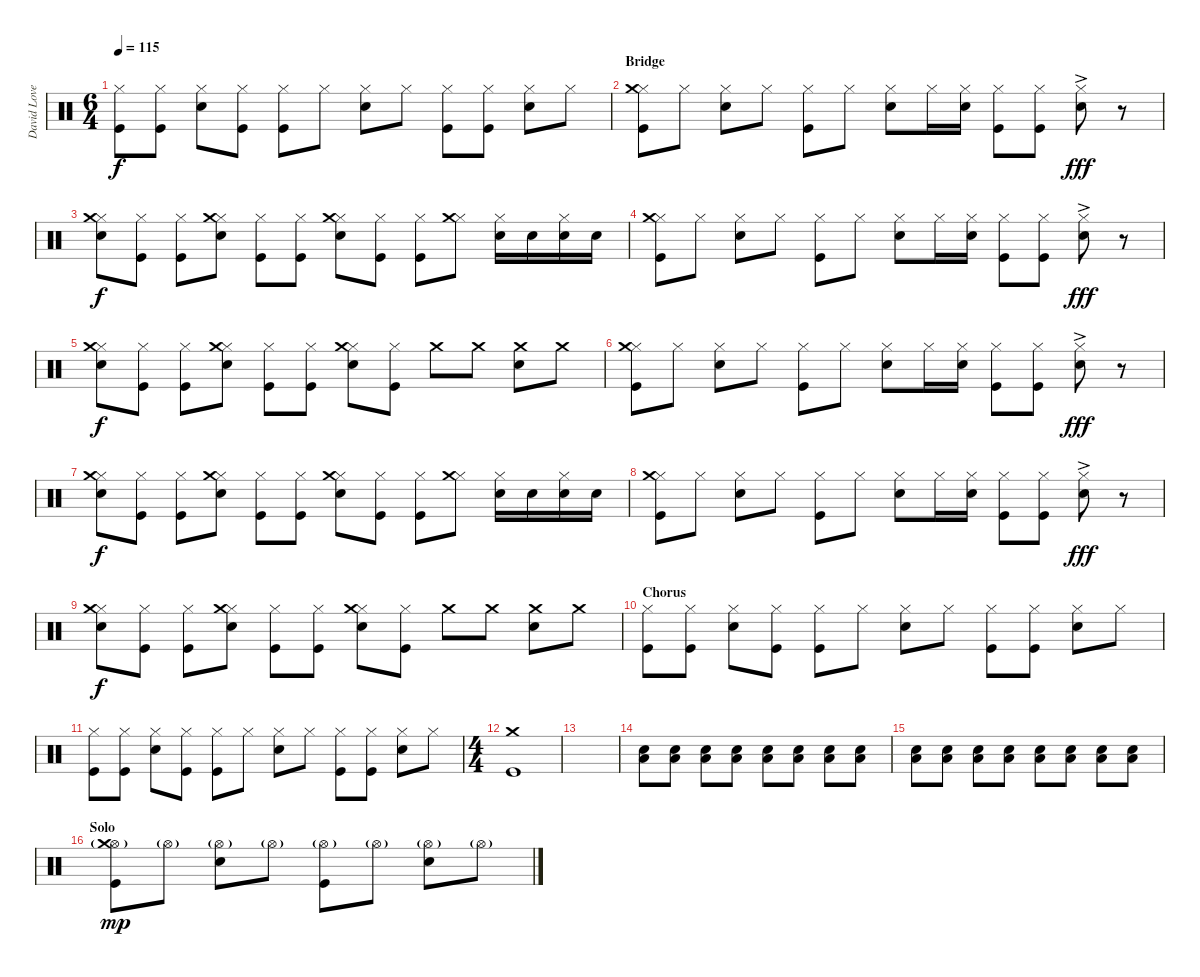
\track ("David Lovering" "David Love") {instrument percussion}
\staff {score}
\articulation defaults
\ts (6 4)
\tempo 115
\clef neutral
\ks c
("Hi-Hat (closed)" "Kick (hit)").8{dy f} ("Hi-Hat (closed)" "Kick (hit)").8 ("Hi-Hat (closed)" "Snare (hit) 2").8 ("Hi-Hat (closed)" "Kick (hit)").8 ("Hi-Hat (closed)" "Kick (hit)").8 "Hi-Hat (closed)".8 ("Hi-Hat (closed)" "Snare (hit) 2").8 "Hi-Hat (closed)".8 ("Hi-Hat (closed)" "Kick (hit)").8 ("Hi-Hat (closed)" "Kick (hit)").8 ("Hi-Hat (closed)" "Snare (hit) 2").8 "Hi-Hat (closed)".8 |
\section ("" "Bridge")
("Hi-Hat (closed)" "Crash medium (hit)" "Kick (hit)").8 "Hi-Hat (closed)".8 ("Hi-Hat (closed)" "Snare (hit) 2").8 "Hi-Hat (closed)".8 ("Hi-Hat (closed)" "Kick (hit)").8 "Hi-Hat (closed)".8 ("Hi-Hat (closed)" "Snare (hit) 2").8 "Hi-Hat (closed)".16 ("Hi-Hat (closed)" "Snare (hit) 2").16 ("Hi-Hat (closed)" "Kick (hit)").8 ("Hi-Hat (closed)" "Kick (hit)").8 ("Hi-Hat (closed)"{ac} "Snare (hit) 2").8{dy fff} r.8 |
("Hi-Hat (closed)" "Crash medium (hit)" "Snare (hit) 2").8{dy f} ("Hi-Hat (closed)" "Kick (hit)").8 ("Hi-Hat (closed)" "Kick (hit)").8 ("Hi-Hat (closed)" "Crash medium (hit)" "Snare (hit) 2").8 ("Hi-Hat (closed)" "Kick (hit)").8 ("Hi-Hat (closed)" "Kick (hit)").8 ("Hi-Hat (closed)" "Crash medium (hit)" "Snare (hit) 2").8 ("Hi-Hat (closed)" "Kick (hit)").8 ("Hi-Hat (closed)" "Kick (hit)").8 ("Hi-Hat (closed)" "Crash medium (hit)").8 ("Hi-Hat (closed)" "Snare (hit) 2").16 "Snare (hit) 2".16 ("Hi-Hat (closed)" "Snare (hit) 2").16 "Snare (hit) 2".16 |
("Hi-Hat (closed)" "Crash medium (hit)" "Kick (hit)").8 "Hi-Hat (closed)".8 ("Hi-Hat (closed)" "Snare (hit) 2").8 "Hi-Hat (closed)".8 ("Hi-Hat (closed)" "Kick (hit)").8 "Hi-Hat (closed)".8 ("Hi-Hat (closed)" "Snare (hit) 2").8 "Hi-Hat (closed)".16 ("Hi-Hat (closed)" "Snare (hit) 2").16 ("Hi-Hat (closed)" "Kick (hit)").8 ("Hi-Hat (closed)" "Kick (hit)").8 ("Hi-Hat (closed)"{ac} "Snare (hit) 2").8{dy fff} r.8 |
("Hi-Hat (closed)" "Crash medium (hit)" "Snare (hit) 2").8{dy f} ("Hi-Hat (closed)" "Kick (hit)").8 ("Hi-Hat (closed)" "Kick (hit)").8 ("Hi-Hat (closed)" "Crash medium (hit)" "Snare (hit) 2").8 ("Hi-Hat (closed)" "Kick (hit)").8 ("Hi-Hat (closed)" "Kick (hit)").8 ("Hi-Hat (closed)" "Crash medium (hit)" "Snare (hit) 2").8 ("Hi-Hat (closed)" "Kick (hit)").8 "Crash medium (hit)".8 "Crash medium (hit)".8 ("Crash medium (hit)" "Snare (hit) 2").8 "Crash medium (hit)".8 |
("Hi-Hat (closed)" "Crash medium (hit)" "Kick (hit)").8 "Hi-Hat (closed)".8 ("Hi-Hat (closed)" "Snare (hit) 2").8 "Hi-Hat (closed)".8 ("Hi-Hat (closed)" "Kick (hit)").8 "Hi-Hat (closed)".8 ("Hi-Hat (closed)" "Snare (hit) 2").8 "Hi-Hat (closed)".16 ("Hi-Hat (closed)" "Snare (hit) 2").16 ("Hi-Hat (closed)" "Kick (hit)").8 ("Hi-Hat (closed)" "Kick (hit)").8 ("Hi-Hat (closed)"{ac} "Snare (hit) 2").8{dy fff} r.8 |
("Hi-Hat (closed)" "Crash medium (hit)" "Snare (hit) 2").8{dy f} ("Hi-Hat (closed)" "Kick (hit)").8 ("Hi-Hat (closed)" "Kick (hit)").8 ("Hi-Hat (closed)" "Crash medium (hit)" "Snare (hit) 2").8 ("Hi-Hat (closed)" "Kick (hit)").8 ("Hi-Hat (closed)" "Kick (hit)").8 ("Hi-Hat (closed)" "Crash medium (hit)" "Snare (hit) 2").8 ("Hi-Hat (closed)" "Kick (hit)").8 ("Hi-Hat (closed)" "Kick (hit)").8 ("Hi-Hat (closed)" "Crash medium (hit)").8 ("Hi-Hat (closed)" "Snare (hit) 2").16 "Snare (hit) 2".16 ("Hi-Hat (closed)" "Snare (hit) 2").16 "Snare (hit) 2".16 |
("Hi-Hat (closed)" "Crash medium (hit)" "Kick (hit)").8 "Hi-Hat (closed)".8 ("Hi-Hat (closed)" "Snare (hit) 2").8 "Hi-Hat (closed)".8 ("Hi-Hat (closed)" "Kick (hit)").8 "Hi-Hat (closed)".8 ("Hi-Hat (closed)" "Snare (hit) 2").8 "Hi-Hat (closed)".16 ("Hi-Hat (closed)" "Snare (hit) 2").16 ("Hi-Hat (closed)" "Kick (hit)").8 ("Hi-Hat (closed)" "Kick (hit)").8 ("Hi-Hat (closed)"{ac} "Snare (hit) 2").8{dy fff} r.8 |
("Hi-Hat (closed)" "Crash medium (hit)" "Snare (hit) 2").8{dy f} ("Hi-Hat (closed)" "Kick (hit)").8 ("Hi-Hat (closed)" "Kick (hit)").8 ("Hi-Hat (closed)" "Crash medium (hit)" "Snare (hit) 2").8 ("Hi-Hat (closed)" "Kick (hit)").8 ("Hi-Hat (closed)" "Kick (hit)").8 ("Hi-Hat (closed)" "Crash medium (hit)" "Snare (hit) 2").8 ("Hi-Hat (closed)" "Kick (hit)").8 "Crash medium (hit)".8 "Crash medium (hit)".8 ("Crash medium (hit)" "Snare (hit) 2").8 "Crash medium (hit)".8 |
\section ("" "Chorus")
("Hi-Hat (closed)" "Kick (hit)").8 ("Hi-Hat (closed)" "Kick (hit)").8 ("Hi-Hat (closed)" "Snare (hit) 2").8 ("Hi-Hat (closed)" "Kick (hit)").8 ("Hi-Hat (closed)" "Kick (hit)").8 "Hi-Hat (closed)".8 ("Hi-Hat (closed)" "Snare (hit) 2").8 "Hi-Hat (closed)".8 ("Hi-Hat (closed)" "Kick (hit)").8 ("Hi-Hat (closed)" "Kick (hit)").8 ("Hi-Hat (closed)" "Snare (hit) 2").8 "Hi-Hat (closed)".8 |
("Hi-Hat (closed)" "Kick (hit)").8 ("Hi-Hat (closed)" "Kick (hit)").8 ("Hi-Hat (closed)" "Snare (hit) 2").8 ("Hi-Hat (closed)" "Kick (hit)").8 ("Hi-Hat (closed)" "Kick (hit)").8 "Hi-Hat (closed)".8 ("Hi-Hat (closed)" "Snare (hit) 2").8 "Hi-Hat (closed)".8 ("Hi-Hat (closed)" "Kick (hit)").8 ("Hi-Hat (closed)" "Kick (hit)").8 ("Hi-Hat (closed)" "Snare (hit) 2").8 "Hi-Hat (closed)".8 |
\ts (4 4)
\section ("" "")
("Crash medium (hit)" "Kick (hit)").1 |
|
("Snare (hit) 2" "Low Floor Tom (hit)").8 ("Snare (hit) 2" "Low Floor Tom (hit)").8 ("Snare (hit) 2" "Low Floor Tom (hit)").8 ("Snare (hit) 2" "Low Floor Tom (hit)").8 ("Snare (hit) 2" "Low Floor Tom (hit)").8 ("Snare (hit) 2" "Low Floor Tom (hit)").8 ("Snare (hit) 2" "Low Floor Tom (hit)").8 ("Snare (hit) 2" "Low Floor Tom (hit)").8 |
("Snare (hit) 2" "Low Floor Tom (hit)").8 ("Snare (hit) 2" "Low Floor Tom (hit)").8 ("Snare (hit) 2" "Low Floor Tom (hit)").8 ("Snare (hit) 2" "Low Floor Tom (hit)").8 ("Snare (hit) 2" "Low Floor Tom (hit)").8 ("Snare (hit) 2" "Low Floor Tom (hit)").8 ("Snare (hit) 2" "Low Floor Tom (hit)").8 ("Snare (hit) 2" "Low Floor Tom (hit)").8 |
\section ("" "Solo")
("Hi-Hat (open)"{g} "Crash medium (hit)" "Kick (hit)").8{dy mp} "Hi-Hat (open)"{g}.8 ("Hi-Hat (open)"{g} "Snare (hit) 2").8 "Hi-Hat (open)"{g}.8 ("Hi-Hat (open)"{g} "Kick (hit)").8 "Hi-Hat (open)"{g}.8 ("Hi-Hat (open)"{g} "Snare (hit) 2").8 "Hi-Hat (open)"{g}.8
